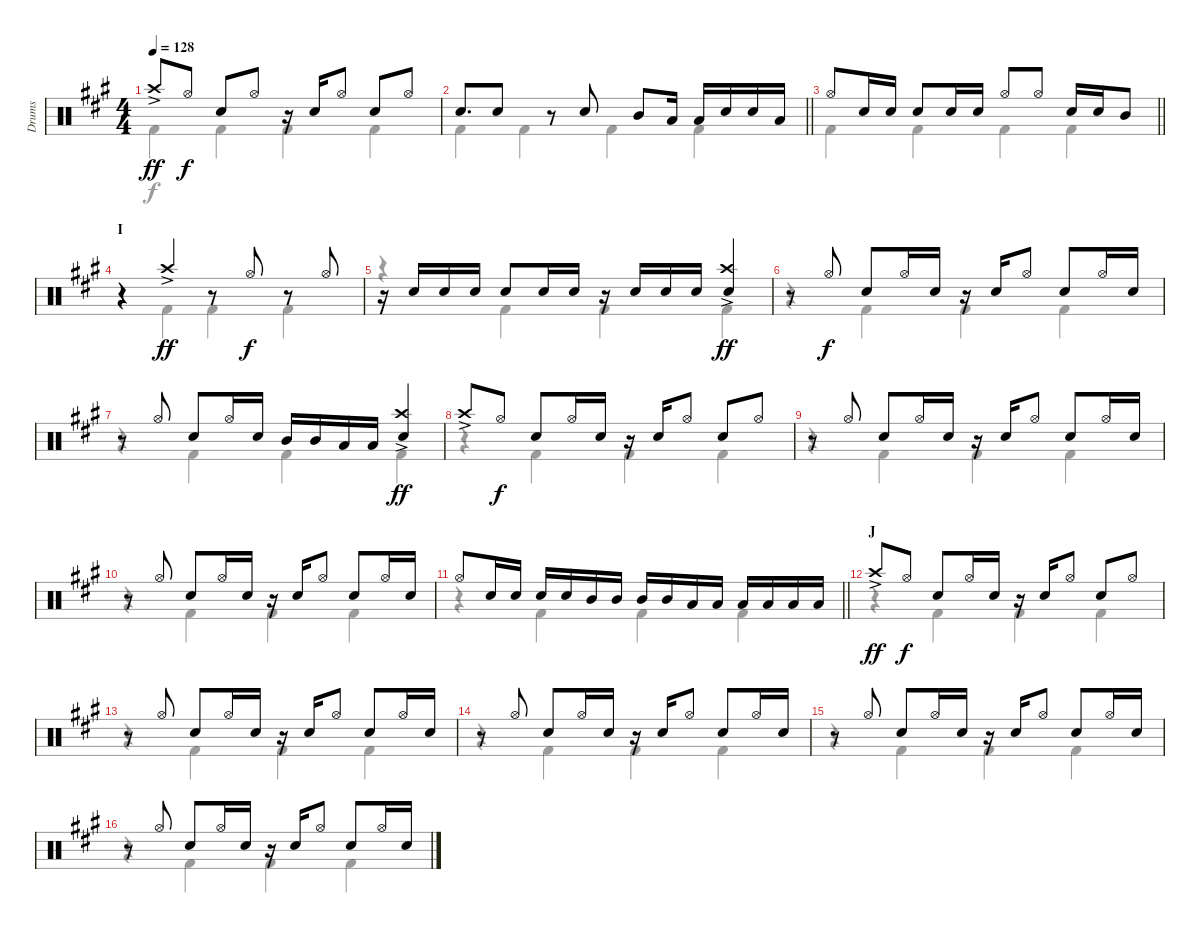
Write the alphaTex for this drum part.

\track ("Drums" "Drums") {instrument percussion}
\staff {score}
\articulation defaults
\voice
\ts (4 4)
\tempo 128
\clef neutral
\ks a "Crash high (hit)"{ac}.8{dy ff} "Hi-Hat (open)".8{dy f} "Snare (hit) 2".8 "Hi-Hat (open)".8
r.16 "Snare (hit) 2".16 "Hi-Hat (open)".8 "Snare (hit) 2".8 "Hi-Hat (open)".8 |
\barLineRight lightlight "Snare (hit) 2".8{d} "Snare (hit) 2".8
r.8 "Snare (hit) 2".8 "Mid Tom (hit)".8 "Low Tom (hit)".16 "Low Tom (hit)".16 "Snare (hit) 2".16 "Snare (hit) 2".16 "Low Tom (hit)".16 |
\barLineRight lightlight "Hi-Hat (open)".8 "Snare (hit) 2".16 "Snare (hit) 2".16 "Snare (hit) 2".8 "Snare (hit) 2".16 "Snare (hit) 2".16 "Hi-Hat (open)".8 "Hi-Hat (open)".8 "Snare (hit) 2".16 "Snare (hit) 2".16 "Mid Tom (hit)".8
|
\section ("" "I")
r.4 "Crash high (hit)"{ac}.4{dy ff} r.8 "Hi-Hat (open)".8{dy f} r.8 "Hi-Hat (open)".8 |
r.16 "Snare (hit) 2".16 "Snare (hit) 2".16 "Snare (hit) 2".16 "Snare (hit) 2".8 "Snare (hit) 2".16 "Snare (hit) 2".16 r.16 "Snare (hit) 2".16 "Snare (hit) 2".16 "Snare (hit) 2".16 ("Crash high (hit)"{ac} "Snare (hit) 2").4{dy ff} |
r.8 "Hi-Hat (open)".8{dy f} "Snare (hit) 2".8 "Hi-Hat (open)".16 "Snare (hit) 2".16 r.16 "Snare (hit) 2".16 "Hi-Hat (open)".8 "Snare (hit) 2".8 "Hi-Hat (open)".16 "Snare (hit) 2".16 |
r.8 "Hi-Hat (open)".8 "Snare (hit) 2".8 "Hi-Hat (open)".16 "Snare (hit) 2".16 "Mid Tom (hit)".16 "Mid Tom (hit)".16 "Low Tom (hit)".16 "Low Tom (hit)".16 ("Crash high (hit)"{ac} "Snare (hit) 2").4{dy ff} |
"Crash high (hit)"{ac}.8 "Hi-Hat (open)".8{dy f} "Snare (hit) 2".8 "Hi-Hat (open)".16 "Snare (hit) 2".16 r.16 "Snare (hit) 2".16 "Hi-Hat (open)".8 "Snare (hit) 2".8 "Hi-Hat (open)".8 |
r.8 "Hi-Hat (open)".8 "Snare (hit) 2".8 "Hi-Hat (open)".16 "Snare (hit) 2".16 r.16 "Snare (hit) 2".16 "Hi-Hat (open)".8 "Snare (hit) 2".8 "Hi-Hat (open)".16 "Snare (hit) 2".16 |
r.8 "Hi-Hat (open)".8 "Snare (hit) 2".8 "Hi-Hat (open)".16 "Snare (hit) 2".16 r.16 "Snare (hit) 2".16 "Hi-Hat (open)".8 "Snare (hit) 2".8 "Hi-Hat (open)".16 "Snare (hit) 2".16 |
\barLineRight lightlight "Hi-Hat (open)".8 "Snare (hit) 2".16 "Snare (hit) 2".16 "Snare (hit) 2".16 "Snare (hit) 2".16 "Mid Tom (hit)".16 "Mid Tom (hit)".16 "Mid Tom (hit)".16 "Mid Tom (hit)".16 "Low Tom (hit)".16 "Low Tom (hit)".16 "Low Tom (hit)".16 "Low Tom (hit)".16 "Low Tom (hit)".16 "Low Tom (hit)".16
|
\section ("" "J")
"Crash high (hit)"{ac}.8{dy ff} "Hi-Hat (open)".8{dy f} "Snare (hit) 2".8 "Hi-Hat (open)".16 "Snare (hit) 2".16 r.16 "Snare (hit) 2".16 "Hi-Hat (open)".8 "Snare (hit) 2".8 "Hi-Hat (open)".8 |
r.8 "Hi-Hat (open)".8 "Snare (hit) 2".8 "Hi-Hat (open)".16 "Snare (hit) 2".16 r.16 "Snare (hit) 2".16 "Hi-Hat (open)".8 "Snare (hit) 2".8 "Hi-Hat (open)".16 "Snare (hit) 2".16 |
r.8 "Hi-Hat (open)".8 "Snare (hit) 2".8 "Hi-Hat (open)".16 "Snare (hit) 2".16 r.16 "Snare (hit) 2".16 "Hi-Hat (open)".8 "Snare (hit) 2".8 "Hi-Hat (open)".16 "Snare (hit) 2".16 |
r.8 "Hi-Hat (open)".8 "Snare (hit) 2".8 "Hi-Hat (open)".16 "Snare (hit) 2".16 r.16 "Snare (hit) 2".16 "Hi-Hat (open)".8 "Snare (hit) 2".8 "Hi-Hat (open)".16 "Snare (hit) 2".16 |
r.8 "Hi-Hat (open)".8 "Snare (hit) 2".8 "Hi-Hat (open)".16 "Snare (hit) 2".16 r.16 "Snare (hit) 2".16 "Hi-Hat (open)".8 "Snare (hit) 2".8 "Hi-Hat (open)".16 "Snare (hit) 2".16
\voice
\clef neutral
\ottava regular
\simile none
\ks a "Kick (hit) 2".4{dy f} "Kick (hit) 2".4 "Kick (hit) 2".4 "Kick (hit) 2".4
|
\barLineRight lightlight "Kick (hit) 2".4 "Kick (hit) 2".4 "Kick (hit) 2".4 "Kick (hit) 2".4
|
\barLineRight lightlight "Kick (hit) 2".4 "Kick (hit) 2".4 "Kick (hit) 2".4 "Kick (hit) 2".4
|
r.4 "Kick (hit) 2".4 "Kick (hit) 2".4 "Kick (hit) 2".4 |
r.4 "Kick (hit) 2".4 "Kick (hit) 2".4 "Kick (hit) 2".4 |
r.4 "Kick (hit) 2".4 "Kick (hit) 2".4 "Kick (hit) 2".4 |
r.4 "Kick (hit) 2".4 "Kick (hit) 2".4 "Kick (hit) 2".4 |
r.4 "Kick (hit) 2".4 "Kick (hit) 2".4 "Kick (hit) 2".4 |
r.4 "Kick (hit) 2".4 "Kick (hit) 2".4 "Kick (hit) 2".4 |
r.4 "Kick (hit) 2".4 "Kick (hit) 2".4 "Kick (hit) 2".4 |
\barLineRight lightlight
r.4 "Kick (hit) 2".4 "Kick (hit) 2".4 "Kick (hit) 2".4 |
r.4 "Kick (hit) 2".4 "Kick (hit) 2".4 "Kick (hit) 2".4 |
r.4 "Kick (hit) 2".4 "Kick (hit) 2".4 "Kick (hit) 2".4 |
r.4 "Kick (hit) 2".4 "Kick (hit) 2".4 "Kick (hit) 2".4 |
r.4 "Kick (hit) 2".4 "Kick (hit) 2".4 "Kick (hit) 2".4 |
r.4 "Kick (hit) 2".4 "Kick (hit) 2".4 "Kick (hit) 2".4
